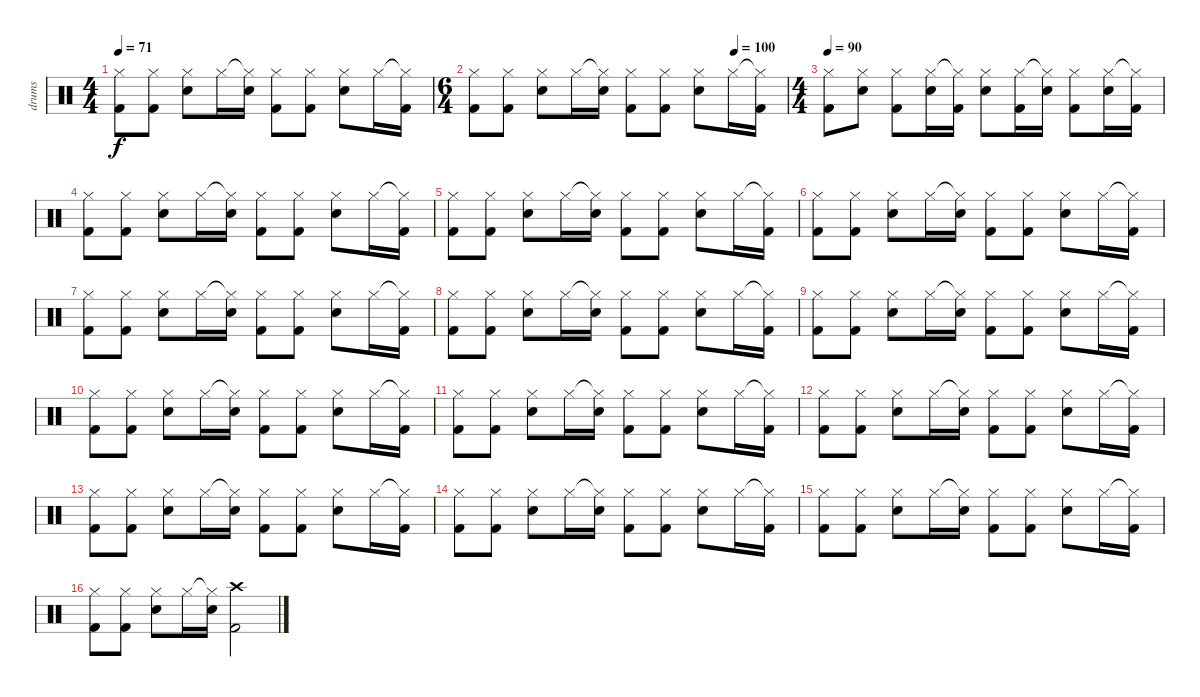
\track ("drums" "drums") {instrument percussion}
\staff {score}
\articulation defaults
\ts (4 4)
\tempo 71
\clef neutral
\ks c
("Hi-Hat (closed)" "Kick (hit) 2").8{dy f} ("Hi-Hat (closed)" "Kick (hit) 2").8 ("Hi-Hat (closed)" "Snare (hit) 2").8 "Hi-Hat (closed)".16 ("Hi-Hat (closed)"{t} "Snare (hit) 2").16 ("Hi-Hat (closed)" "Kick (hit) 2").8 ("Hi-Hat (closed)" "Kick (hit) 2").8 ("Hi-Hat (closed)" "Snare (hit) 2").8 "Hi-Hat (closed)".16 ("Hi-Hat (closed)"{t} "Kick (hit) 2").16 |
\ts (6 4)
\tempo (100 0.8333333333333334)
("Hi-Hat (closed)" "Kick (hit) 2").8 ("Hi-Hat (closed)" "Kick (hit) 2").8 ("Hi-Hat (closed)" "Snare (hit) 2").8 "Hi-Hat (closed)".16 ("Hi-Hat (closed)"{t} "Snare (hit) 2").16 ("Hi-Hat (closed)" "Kick (hit) 2").8 ("Hi-Hat (closed)" "Kick (hit) 2").8 ("Hi-Hat (closed)" "Snare (hit) 2").8 "Hi-Hat (closed)".16 ("Hi-Hat (closed)"{t} "Kick (hit) 2").16 |
\ts (4 4)
\tempo 90
("Hi-Hat (closed)" "Kick (hit) 2").8 ("Hi-Hat (closed)" "Snare (hit) 2").8 ("Hi-Hat (closed)" "Kick (hit) 2").8 ("Hi-Hat (closed)" "Snare (hit) 2").16 ("Hi-Hat (closed)"{t} "Kick (hit) 2").16 ("Hi-Hat (closed)" "Snare (hit) 2").8 ("Hi-Hat (closed)" "Kick (hit) 2").16 ("Hi-Hat (closed)"{t} "Snare (hit) 2").16 ("Hi-Hat (closed)" "Kick (hit) 2").8 ("Hi-Hat (closed)" "Snare (hit) 2").16 ("Hi-Hat (closed)"{t} "Kick (hit) 2").16 |
("Hi-Hat (closed)" "Kick (hit) 2").8 ("Hi-Hat (closed)" "Kick (hit) 2").8 ("Hi-Hat (closed)" "Snare (hit) 2").8 "Hi-Hat (closed)".16 ("Hi-Hat (closed)"{t} "Snare (hit) 2").16 ("Hi-Hat (closed)" "Kick (hit) 2").8 ("Hi-Hat (closed)" "Kick (hit) 2").8 ("Hi-Hat (closed)" "Snare (hit) 2").8 "Hi-Hat (closed)".16 ("Hi-Hat (closed)"{t} "Kick (hit) 2").16 |
("Hi-Hat (closed)" "Kick (hit) 2").8 ("Hi-Hat (closed)" "Kick (hit) 2").8 ("Hi-Hat (closed)" "Snare (hit) 2").8 "Hi-Hat (closed)".16 ("Hi-Hat (closed)"{t} "Snare (hit) 2").16 ("Hi-Hat (closed)" "Kick (hit) 2").8 ("Hi-Hat (closed)" "Kick (hit) 2").8 ("Hi-Hat (closed)" "Snare (hit) 2").8 "Hi-Hat (closed)".16 ("Hi-Hat (closed)"{t} "Kick (hit) 2").16 |
("Hi-Hat (closed)" "Kick (hit) 2").8 ("Hi-Hat (closed)" "Kick (hit) 2").8 ("Hi-Hat (closed)" "Snare (hit) 2").8 "Hi-Hat (closed)".16 ("Hi-Hat (closed)"{t} "Snare (hit) 2").16 ("Hi-Hat (closed)" "Kick (hit) 2").8 ("Hi-Hat (closed)" "Kick (hit) 2").8 ("Hi-Hat (closed)" "Snare (hit) 2").8 "Hi-Hat (closed)".16 ("Hi-Hat (closed)"{t} "Kick (hit) 2").16 |
("Hi-Hat (closed)" "Kick (hit) 2").8 ("Hi-Hat (closed)" "Kick (hit) 2").8 ("Hi-Hat (closed)" "Snare (hit) 2").8 "Hi-Hat (closed)".16 ("Hi-Hat (closed)"{t} "Snare (hit) 2").16 ("Hi-Hat (closed)" "Kick (hit) 2").8 ("Hi-Hat (closed)" "Kick (hit) 2").8 ("Hi-Hat (closed)" "Snare (hit) 2").8 "Hi-Hat (closed)".16 ("Hi-Hat (closed)"{t} "Kick (hit) 2").16 |
("Hi-Hat (closed)" "Kick (hit) 2").8 ("Hi-Hat (closed)" "Kick (hit) 2").8 ("Hi-Hat (closed)" "Snare (hit) 2").8 "Hi-Hat (closed)".16 ("Hi-Hat (closed)"{t} "Snare (hit) 2").16 ("Hi-Hat (closed)" "Kick (hit) 2").8 ("Hi-Hat (closed)" "Kick (hit) 2").8 ("Hi-Hat (closed)" "Snare (hit) 2").8 "Hi-Hat (closed)".16 ("Hi-Hat (closed)"{t} "Kick (hit) 2").16 |
("Hi-Hat (closed)" "Kick (hit) 2").8 ("Hi-Hat (closed)" "Kick (hit) 2").8 ("Hi-Hat (closed)" "Snare (hit) 2").8 "Hi-Hat (closed)".16 ("Hi-Hat (closed)"{t} "Snare (hit) 2").16 ("Hi-Hat (closed)" "Kick (hit) 2").8 ("Hi-Hat (closed)" "Kick (hit) 2").8 ("Hi-Hat (closed)" "Snare (hit) 2").8 "Hi-Hat (closed)".16 ("Hi-Hat (closed)"{t} "Kick (hit) 2").16 |
("Hi-Hat (closed)" "Kick (hit) 2").8 ("Hi-Hat (closed)" "Kick (hit) 2").8 ("Hi-Hat (closed)" "Snare (hit) 2").8 "Hi-Hat (closed)".16 ("Hi-Hat (closed)"{t} "Snare (hit) 2").16 ("Hi-Hat (closed)" "Kick (hit) 2").8 ("Hi-Hat (closed)" "Kick (hit) 2").8 ("Hi-Hat (closed)" "Snare (hit) 2").8 "Hi-Hat (closed)".16 ("Hi-Hat (closed)"{t} "Kick (hit) 2").16 |
("Hi-Hat (closed)" "Kick (hit) 2").8 ("Hi-Hat (closed)" "Kick (hit) 2").8 ("Hi-Hat (closed)" "Snare (hit) 2").8 "Hi-Hat (closed)".16 ("Hi-Hat (closed)"{t} "Snare (hit) 2").16 ("Hi-Hat (closed)" "Kick (hit) 2").8 ("Hi-Hat (closed)" "Kick (hit) 2").8 ("Hi-Hat (closed)" "Snare (hit) 2").8 "Hi-Hat (closed)".16 ("Hi-Hat (closed)"{t} "Kick (hit) 2").16 |
("Hi-Hat (closed)" "Kick (hit) 2").8 ("Hi-Hat (closed)" "Kick (hit) 2").8 ("Hi-Hat (closed)" "Snare (hit) 2").8 "Hi-Hat (closed)".16 ("Hi-Hat (closed)"{t} "Snare (hit) 2").16 ("Hi-Hat (closed)" "Kick (hit) 2").8 ("Hi-Hat (closed)" "Kick (hit) 2").8 ("Hi-Hat (closed)" "Snare (hit) 2").8 "Hi-Hat (closed)".16 ("Hi-Hat (closed)"{t} "Kick (hit) 2").16 |
("Hi-Hat (closed)" "Kick (hit) 2").8 ("Hi-Hat (closed)" "Kick (hit) 2").8 ("Hi-Hat (closed)" "Snare (hit) 2").8 "Hi-Hat (closed)".16 ("Hi-Hat (closed)"{t} "Snare (hit) 2").16 ("Hi-Hat (closed)" "Kick (hit) 2").8 ("Hi-Hat (closed)" "Kick (hit) 2").8 ("Hi-Hat (closed)" "Snare (hit) 2").8 "Hi-Hat (closed)".16 ("Hi-Hat (closed)"{t} "Kick (hit) 2").16 |
("Hi-Hat (closed)" "Kick (hit) 2").8 ("Hi-Hat (closed)" "Kick (hit) 2").8 ("Hi-Hat (closed)" "Snare (hit) 2").8 "Hi-Hat (closed)".16 ("Hi-Hat (closed)"{t} "Snare (hit) 2").16 ("Hi-Hat (closed)" "Kick (hit) 2").8 ("Hi-Hat (closed)" "Kick (hit) 2").8 ("Hi-Hat (closed)" "Snare (hit) 2").8 "Hi-Hat (closed)".16 ("Hi-Hat (closed)"{t} "Kick (hit) 2").16 |
("Hi-Hat (closed)" "Kick (hit) 2").8 ("Hi-Hat (closed)" "Kick (hit) 2").8 ("Hi-Hat (closed)" "Snare (hit) 2").8 "Hi-Hat (closed)".16 ("Hi-Hat (closed)"{t} "Snare (hit) 2").16 ("Hi-Hat (closed)" "Kick (hit) 2").8 ("Hi-Hat (closed)" "Kick (hit) 2").8 ("Hi-Hat (closed)" "Snare (hit) 2").8 "Hi-Hat (closed)".16 ("Hi-Hat (closed)"{t} "Kick (hit) 2").16 |
("Hi-Hat (closed)" "Kick (hit) 2").8 ("Hi-Hat (closed)" "Kick (hit) 2").8 ("Hi-Hat (closed)" "Snare (hit) 2").8 "Hi-Hat (closed)".16 ("Hi-Hat (closed)"{t} "Snare (hit) 2").16 ("Crash high (hit)" "Kick (hit) 2").2
